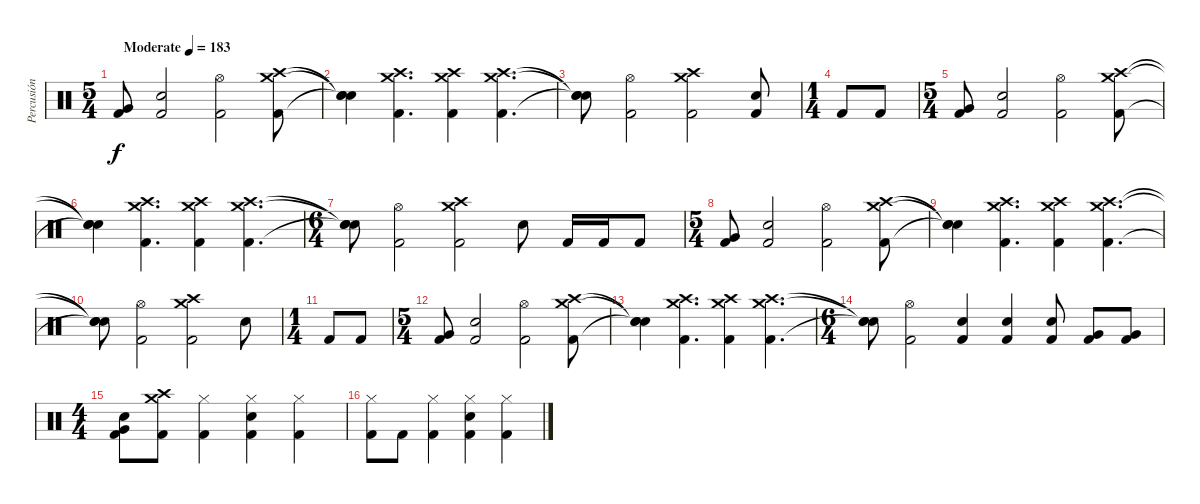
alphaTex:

\track ("Percusión" "Percusión") {instrument percussion}
\staff {score}
\articulation defaults
\ts (5 4)
\tempo (183 "Moderate")
\clef neutral
\ks c
("Kick (hit) 2" "Very Low Tom (hit)").8{dy f} ("Kick (hit) 2" "Electric Snare (hit)").2 ("Kick (hit) 2" "Hi-Hat (open)").2 ("Kick (hit) 2" "Crash medium (hit)" "Crash high (hit)").8 |
("Snare (hit)"{t} "Snare (hit)"{t} "Snare (hit)"{t}).4 ("Kick (hit) 2" "Crash medium (hit)" "Crash high (hit)").4{d} ("Kick (hit) 2" "Crash medium (hit)" "Crash high (hit)").4 ("Kick (hit) 2" "Crash medium (hit)" "Crash high (hit)").4{d} |
("Snare (hit)"{t} "Snare (hit)"{t} "Snare (hit)"{t}).8 ("Kick (hit) 2" "Hi-Hat (open)").2 ("Kick (hit) 2" "Crash medium (hit)" "Crash high (hit)").2 ("Kick (hit) 2" "Electric Snare (hit)").8 |
\ts (1 4)
"Kick (hit) 2".8 "Kick (hit) 2".8 |
\ts (5 4)
("Kick (hit) 2" "Very Low Tom (hit)").8 ("Kick (hit) 2" "Electric Snare (hit)").2 ("Kick (hit) 2" "Hi-Hat (open)").2 ("Kick (hit) 2" "Crash medium (hit)" "Crash high (hit)").8 |
("Snare (hit)"{t} "Snare (hit)"{t} "Snare (hit)"{t}).4 ("Kick (hit) 2" "Crash medium (hit)" "Crash high (hit)").4{d} ("Kick (hit) 2" "Crash medium (hit)" "Crash high (hit)").4 ("Kick (hit) 2" "Crash medium (hit)" "Crash high (hit)").4{d} |
\ts (6 4)
("Snare (hit)"{t} "Snare (hit)"{t} "Snare (hit)"{t}).8 ("Kick (hit) 2" "Hi-Hat (open)").2 ("Kick (hit) 2" "Crash medium (hit)" "Crash high (hit)").2 "Electric Snare (hit)".8 "Kick (hit) 2".16 "Kick (hit) 2".16 "Kick (hit) 2".8 |
\ts (5 4)
("Kick (hit) 2" "Very Low Tom (hit)").8 ("Kick (hit) 2" "Electric Snare (hit)").2 ("Kick (hit) 2" "Hi-Hat (open)").2 ("Kick (hit) 2" "Crash medium (hit)" "Crash high (hit)").8 |
("Snare (hit)"{t} "Snare (hit)"{t} "Snare (hit)"{t}).4 ("Kick (hit) 2" "Crash medium (hit)" "Crash high (hit)").4{d} ("Kick (hit) 2" "Crash medium (hit)" "Crash high (hit)").4 ("Kick (hit) 2" "Crash medium (hit)" "Crash high (hit)").4{d} |
("Snare (hit)"{t} "Snare (hit)"{t} "Snare (hit)"{t}).8 ("Kick (hit) 2" "Hi-Hat (open)").2 ("Kick (hit) 2" "Crash medium (hit)" "Crash high (hit)").2 "Electric Snare (hit)".8 |
\ts (1 4)
"Kick (hit) 2".8 "Kick (hit) 2".8 |
\ts (5 4)
("Kick (hit) 2" "Very Low Tom (hit)").8 ("Kick (hit) 2" "Electric Snare (hit)").2 ("Kick (hit) 2" "Hi-Hat (open)").2 ("Kick (hit) 2" "Crash medium (hit)" "Crash high (hit)").8 |
("Snare (hit)"{t} "Snare (hit)"{t} "Snare (hit)"{t}).4 ("Kick (hit) 2" "Crash medium (hit)" "Crash high (hit)").4{d} ("Kick (hit) 2" "Crash medium (hit)" "Crash high (hit)").4 ("Kick (hit) 2" "Crash medium (hit)" "Crash high (hit)").4{d} |
\ts (6 4)
("Snare (hit)"{t} "Snare (hit)"{t} "Snare (hit)"{t}).8 ("Kick (hit) 2" "Hi-Hat (open)").2 ("Kick (hit) 2" "Electric Snare (hit)").4 ("Kick (hit) 2" "Electric Snare (hit)").4 ("Kick (hit) 2" "Electric Snare (hit)").8 ("Kick (hit) 2" "Very Low Tom (hit)").8 ("Kick (hit) 2" "Very Low Tom (hit)").8 |
\ts (4 4)
("Kick (hit) 2" "Electric Snare (hit)" "Very Low Tom (hit)").8 ("Kick (hit) 2" "Crash medium (hit)" "Crash high (hit)").8 ("Kick (hit) 2" "Hi-Hat (closed)").4 ("Kick (hit) 2" "Electric Snare (hit)" "Hi-Hat (closed)").4 ("Kick (hit) 2" "Hi-Hat (closed)").4 |
("Kick (hit) 2" "Hi-Hat (closed)").8 "Kick (hit) 2".8 ("Kick (hit) 2" "Hi-Hat (closed)").4 ("Kick (hit) 2" "Electric Snare (hit)" "Hi-Hat (closed)").4 ("Kick (hit) 2" "Hi-Hat (closed)").4
